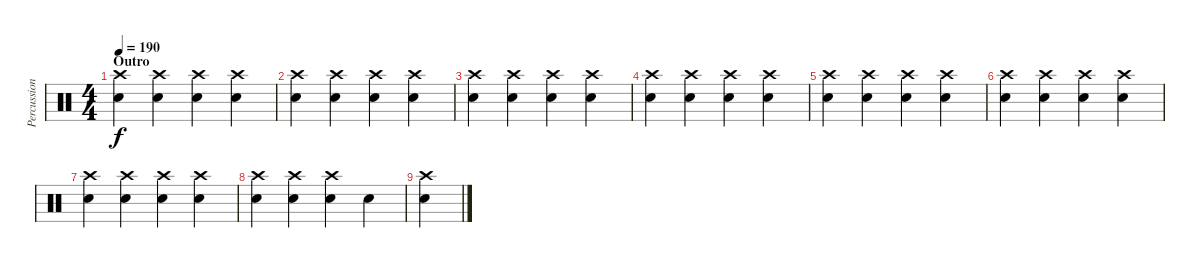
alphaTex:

\track ("Percussion" "Percussion") {instrument percussion}
\staff {score}
\articulation defaults
\ts (4 4)
\section ("" "Outro")
\tempo 190
\clef neutral
\ks c
("Snare (hit) 2" "Crash high (hit)").4{dy f} ("Snare (hit) 2" "Crash high (hit)").4 ("Snare (hit) 2" "Crash high (hit)").4 ("Snare (hit) 2" "Crash high (hit)").4 |
("Snare (hit) 2" "Crash high (hit)").4 ("Snare (hit) 2" "Crash high (hit)").4 ("Snare (hit) 2" "Crash high (hit)").4 ("Snare (hit) 2" "Crash high (hit)").4 |
("Snare (hit) 2" "Crash high (hit)").4 ("Snare (hit) 2" "Crash high (hit)").4 ("Snare (hit) 2" "Crash high (hit)").4 ("Snare (hit) 2" "Crash high (hit)").4 |
("Snare (hit) 2" "Crash high (hit)").4 ("Snare (hit) 2" "Crash high (hit)").4 ("Snare (hit) 2" "Crash high (hit)").4 ("Snare (hit) 2" "Crash high (hit)").4 |
("Snare (hit) 2" "Crash high (hit)").4 ("Snare (hit) 2" "Crash high (hit)").4 ("Snare (hit) 2" "Crash high (hit)").4 ("Snare (hit) 2" "Crash high (hit)").4 |
("Snare (hit) 2" "Crash high (hit)").4 ("Snare (hit) 2" "Crash high (hit)").4 ("Snare (hit) 2" "Crash high (hit)").4 ("Snare (hit) 2" "Crash high (hit)").4 |
("Snare (hit) 2" "Crash high (hit)").4 ("Snare (hit) 2" "Crash high (hit)").4 ("Snare (hit) 2" "Crash high (hit)").4 ("Snare (hit) 2" "Crash high (hit)").4 |
("Snare (hit) 2" "Crash high (hit)").4 ("Snare (hit) 2" "Crash high (hit)").4 ("Snare (hit) 2" "Crash high (hit)").4 "Snare (hit) 2".4 |
("Snare (hit) 2" "Crash high (hit)").4
